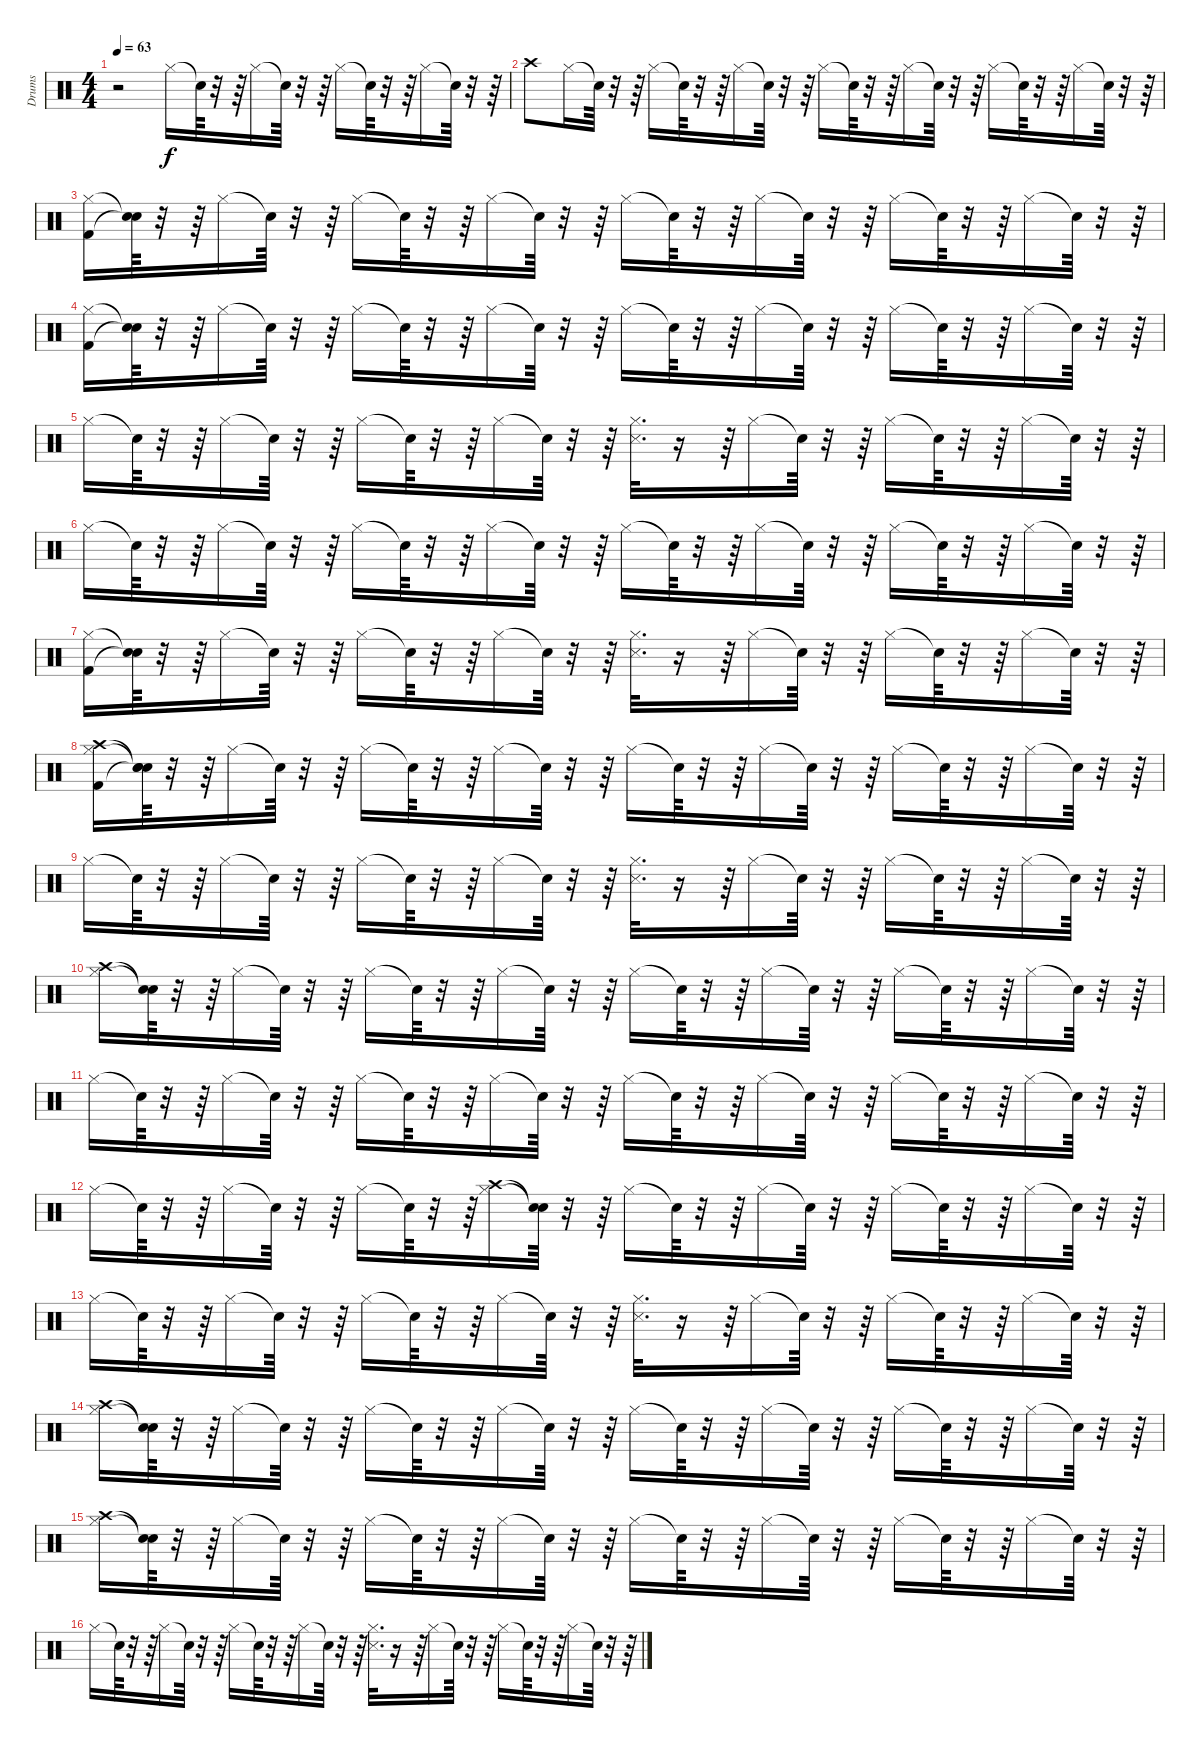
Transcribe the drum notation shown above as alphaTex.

\track ("Drums" "Drums") {instrument percussion}
\staff {score}
\articulation defaults
\ts (4 4)
\tempo 63
\clef neutral
\ks c
r.2{dy f} "Hi-Hat (closed)".16 "Snare (hit)"{t}.64 r.32 r.64 "Hi-Hat (closed)".16 "Snare (hit)"{t}.64 r.32 r.64 "Hi-Hat (closed)".16 "Snare (hit)"{t}.64 r.32 r.64 "Hi-Hat (closed)".16 "Snare (hit)"{t}.64 r.32 r.64 |
"Crash high (hit)".8 "Hi-Hat (closed)".16 "Snare (hit)"{t}.64 r.32 r.64 "Hi-Hat (closed)".16 "Snare (hit)"{t}.64 r.32 r.64 "Hi-Hat (closed)".16 "Snare (hit)"{t}.64 r.32 r.64 "Hi-Hat (closed)".16 "Snare (hit)"{t}.64 r.32 r.64 "Hi-Hat (closed)".16 "Snare (hit)"{t}.64 r.32 r.64 "Hi-Hat (closed)".16 "Snare (hit)"{t}.64 r.32 r.64 "Hi-Hat (closed)".16 "Snare (hit)"{t}.64 r.32 r.64 |
("Kick (hit) 2" "Hi-Hat (closed)").16 ("Snare (hit)"{t} "Snare (hit)"{t}).64 r.32 r.64 "Hi-Hat (closed)".16 "Snare (hit)"{t}.64 r.32 r.64 "Hi-Hat (closed)".16 "Snare (hit)"{t}.64 r.32 r.64 "Hi-Hat (closed)".16 "Snare (hit)"{t}.64 r.32 r.64 "Hi-Hat (closed)".16 "Snare (hit)"{t}.64 r.32 r.64 "Hi-Hat (closed)".16 "Snare (hit)"{t}.64 r.32 r.64 "Hi-Hat (closed)".16 "Snare (hit)"{t}.64 r.32 r.64 "Hi-Hat (closed)".16 "Snare (hit)"{t}.64 r.32 r.64 |
("Kick (hit) 2" "Hi-Hat (closed)").16 ("Snare (hit)"{t} "Snare (hit)"{t}).64 r.32 r.64 "Hi-Hat (closed)".16 "Snare (hit)"{t}.64 r.32 r.64 "Hi-Hat (closed)".16 "Snare (hit)"{t}.64 r.32 r.64 "Hi-Hat (closed)".16 "Snare (hit)"{t}.64 r.32 r.64 "Hi-Hat (closed)".16 "Snare (hit)"{t}.64 r.32 r.64 "Hi-Hat (closed)".16 "Snare (hit)"{t}.64 r.32 r.64 "Hi-Hat (closed)".16 "Snare (hit)"{t}.64 r.32 r.64 "Hi-Hat (closed)".16 "Snare (hit)"{t}.64 r.32 r.64 |
"Hi-Hat (closed)".16 "Snare (hit)"{t}.64 r.32 r.64 "Hi-Hat (closed)".16 "Snare (hit)"{t}.64 r.32 r.64 "Hi-Hat (closed)".16 "Snare (hit)"{t}.64 r.32 r.64 "Hi-Hat (closed)".16 "Snare (hit)"{t}.64 r.32 r.64 ("Hi-Hat (closed)" "Snare (side stick) 3").32{d} r.16 r.64 "Hi-Hat (closed)".16 "Snare (hit)"{t}.64 r.32 r.64 "Hi-Hat (closed)".16 "Snare (hit)"{t}.64 r.32 r.64 "Hi-Hat (closed)".16 "Snare (hit)"{t}.64 r.32 r.64 |
"Hi-Hat (closed)".16 "Snare (hit)"{t}.64 r.32 r.64 "Hi-Hat (closed)".16 "Snare (hit)"{t}.64 r.32 r.64 "Hi-Hat (closed)".16 "Snare (hit)"{t}.64 r.32 r.64 "Hi-Hat (closed)".16 "Snare (hit)"{t}.64 r.32 r.64 "Hi-Hat (closed)".16 "Snare (hit)"{t}.64 r.32 r.64 "Hi-Hat (closed)".16 "Snare (hit)"{t}.64 r.32 r.64 "Hi-Hat (closed)".16 "Snare (hit)"{t}.64 r.32 r.64 "Hi-Hat (closed)".16 "Snare (hit)"{t}.64 r.32 r.64 |
("Kick (hit) 2" "Hi-Hat (closed)").16 ("Snare (hit)"{t} "Snare (hit)"{t}).64 r.32 r.64 "Hi-Hat (closed)".16 "Snare (hit)"{t}.64 r.32 r.64 "Hi-Hat (closed)".16 "Snare (hit)"{t}.64 r.32 r.64 "Hi-Hat (closed)".16 "Snare (hit)"{t}.64 r.32 r.64 ("Hi-Hat (closed)" "Snare (side stick) 3").32{d} r.16 r.64 "Hi-Hat (closed)".16 "Snare (hit)"{t}.64 r.32 r.64 "Hi-Hat (closed)".16 "Snare (hit)"{t}.64 r.32 r.64 "Hi-Hat (closed)".16 "Snare (hit)"{t}.64 r.32 r.64 |
("Crash high (hit)" "Kick (hit) 2" "Hi-Hat (closed)").16 ("Snare (hit)"{t} "Snare (hit)"{t} "Snare (hit)"{t}).64 r.32 r.64 "Hi-Hat (closed)".16 "Snare (hit)"{t}.64 r.32 r.64 "Hi-Hat (closed)".16 "Snare (hit)"{t}.64 r.32 r.64 "Hi-Hat (closed)".16 "Snare (hit)"{t}.64 r.32 r.64 "Hi-Hat (closed)".16 "Snare (hit)"{t}.64 r.32 r.64 "Hi-Hat (closed)".16 "Snare (hit)"{t}.64 r.32 r.64 "Hi-Hat (closed)".16 "Snare (hit)"{t}.64 r.32 r.64 "Hi-Hat (closed)".16 "Snare (hit)"{t}.64 r.32 r.64 |
"Hi-Hat (closed)".16 "Snare (hit)"{t}.64 r.32 r.64 "Hi-Hat (closed)".16 "Snare (hit)"{t}.64 r.32 r.64 "Hi-Hat (closed)".16 "Snare (hit)"{t}.64 r.32 r.64 "Hi-Hat (closed)".16 "Snare (hit)"{t}.64 r.32 r.64 ("Hi-Hat (closed)" "Snare (side stick) 3").32{d} r.16 r.64 "Hi-Hat (closed)".16 "Snare (hit)"{t}.64 r.32 r.64 "Hi-Hat (closed)".16 "Snare (hit)"{t}.64 r.32 r.64 "Hi-Hat (closed)".16 "Snare (hit)"{t}.64 r.32 r.64 |
("Crash high (hit)" "Hi-Hat (closed)").16 ("Snare (hit)"{t} "Snare (hit)"{t}).64 r.32 r.64 "Hi-Hat (closed)".16 "Snare (hit)"{t}.64 r.32 r.64 "Hi-Hat (closed)".16 "Snare (hit)"{t}.64 r.32 r.64 "Hi-Hat (closed)".16 "Snare (hit)"{t}.64 r.32 r.64 "Hi-Hat (closed)".16 "Snare (hit)"{t}.64 r.32 r.64 "Hi-Hat (closed)".16 "Snare (hit)"{t}.64 r.32 r.64 "Hi-Hat (closed)".16 "Snare (hit)"{t}.64 r.32 r.64 "Hi-Hat (closed)".16 "Snare (hit)"{t}.64 r.32 r.64 |
"Hi-Hat (closed)".16 "Snare (hit)"{t}.64 r.32 r.64 "Hi-Hat (closed)".16 "Snare (hit)"{t}.64 r.32 r.64 "Hi-Hat (closed)".16 "Snare (hit)"{t}.64 r.32 r.64 "Hi-Hat (closed)".16 "Snare (hit)"{t}.64 r.32 r.64 "Hi-Hat (closed)".16 "Snare (hit)"{t}.64 r.32 r.64 "Hi-Hat (closed)".16 "Snare (hit)"{t}.64 r.32 r.64 "Hi-Hat (closed)".16 "Snare (hit)"{t}.64 r.32 r.64 "Hi-Hat (closed)".16 "Snare (hit)"{t}.64 r.32 r.64 |
"Hi-Hat (closed)".16 "Snare (hit)"{t}.64 r.32 r.64 "Hi-Hat (closed)".16 "Snare (hit)"{t}.64 r.32 r.64 "Hi-Hat (closed)".16 "Snare (hit)"{t}.64 r.32 r.64 ("Crash high (hit)" "Hi-Hat (closed)").16 ("Snare (hit)"{t} "Snare (hit)"{t}).64 r.32 r.64 "Hi-Hat (closed)".16 "Snare (hit)"{t}.64 r.32 r.64 "Hi-Hat (closed)".16 "Snare (hit)"{t}.64 r.32 r.64 "Hi-Hat (closed)".16 "Snare (hit)"{t}.64 r.32 r.64 "Hi-Hat (closed)".16 "Snare (hit)"{t}.64 r.32 r.64 |
"Hi-Hat (closed)".16 "Snare (hit)"{t}.64 r.32 r.64 "Hi-Hat (closed)".16 "Snare (hit)"{t}.64 r.32 r.64 "Hi-Hat (closed)".16 "Snare (hit)"{t}.64 r.32 r.64 "Hi-Hat (closed)".16 "Snare (hit)"{t}.64 r.32 r.64 ("Hi-Hat (closed)" "Snare (side stick) 3").32{d} r.16 r.64 "Hi-Hat (closed)".16 "Snare (hit)"{t}.64 r.32 r.64 "Hi-Hat (closed)".16 "Snare (hit)"{t}.64 r.32 r.64 "Hi-Hat (closed)".16 "Snare (hit)"{t}.64 r.32 r.64 |
("Crash high (hit)" "Hi-Hat (closed)").16 ("Snare (hit)"{t} "Snare (hit)"{t}).64 r.32 r.64 "Hi-Hat (closed)".16 "Snare (hit)"{t}.64 r.32 r.64 "Hi-Hat (closed)".16 "Snare (hit)"{t}.64 r.32 r.64 "Hi-Hat (closed)".16 "Snare (hit)"{t}.64 r.32 r.64 "Hi-Hat (closed)".16 "Snare (hit)"{t}.64 r.32 r.64 "Hi-Hat (closed)".16 "Snare (hit)"{t}.64 r.32 r.64 "Hi-Hat (closed)".16 "Snare (hit)"{t}.64 r.32 r.64 "Hi-Hat (closed)".16 "Snare (hit)"{t}.64 r.32 r.64 |
("Crash high (hit)" "Hi-Hat (closed)").16 ("Snare (hit)"{t} "Snare (hit)"{t}).64 r.32 r.64 "Hi-Hat (closed)".16 "Snare (hit)"{t}.64 r.32 r.64 "Hi-Hat (closed)".16 "Snare (hit)"{t}.64 r.32 r.64 "Hi-Hat (closed)".16 "Snare (hit)"{t}.64 r.32 r.64 "Hi-Hat (closed)".16 "Snare (hit)"{t}.64 r.32 r.64 "Hi-Hat (closed)".16 "Snare (hit)"{t}.64 r.32 r.64 "Hi-Hat (closed)".16 "Snare (hit)"{t}.64 r.32 r.64 "Hi-Hat (closed)".16 "Snare (hit)"{t}.64 r.32 r.64 |
"Hi-Hat (closed)".16 "Snare (hit)"{t}.64 r.32 r.64 "Hi-Hat (closed)".16 "Snare (hit)"{t}.64 r.32 r.64 "Hi-Hat (closed)".16 "Snare (hit)"{t}.64 r.32 r.64 "Hi-Hat (closed)".16 "Snare (hit)"{t}.64 r.32 r.64 ("Hi-Hat (closed)" "Snare (side stick) 3").32{d} r.16 r.64 "Hi-Hat (closed)".16 "Snare (hit)"{t}.64 r.32 r.64 "Hi-Hat (closed)".16 "Snare (hit)"{t}.64 r.32 r.64 "Hi-Hat (closed)".16 "Snare (hit)"{t}.64 r.32 r.64
